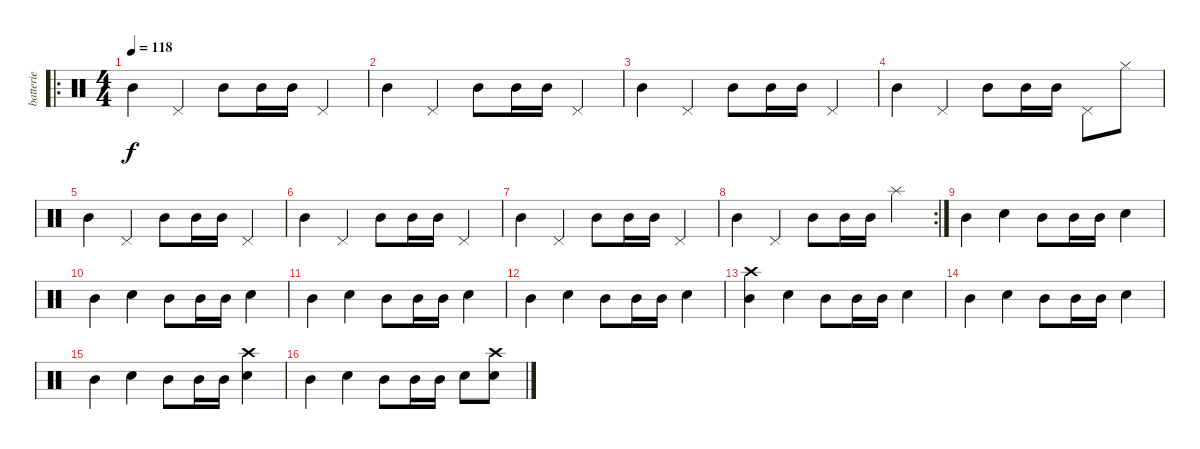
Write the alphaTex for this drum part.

\track ("batterie" "batterie") {instrument percussion}
\staff {score}
\articulation defaults
\ro
\ts (4 4)
\tempo 118
\clef neutral
\ks c "Mid Tom (hit)".4{dy f} "Pedal Hi-Hat (hit)".4 "Mid Tom (hit)".8 "Mid Tom (hit)".16 "Mid Tom (hit)".16 "Pedal Hi-Hat (hit)".4
|
"Mid Tom (hit)".4 "Pedal Hi-Hat (hit)".4 "Mid Tom (hit)".8 "Mid Tom (hit)".16 "Mid Tom (hit)".16 "Pedal Hi-Hat (hit)".4 |
"Mid Tom (hit)".4 "Pedal Hi-Hat (hit)".4 "Mid Tom (hit)".8 "Mid Tom (hit)".16 "Mid Tom (hit)".16 "Pedal Hi-Hat (hit)".4 |
"Mid Tom (hit)".4 "Pedal Hi-Hat (hit)".4 "Mid Tom (hit)".8 "Mid Tom (hit)".16 "Mid Tom (hit)".16 "Pedal Hi-Hat (hit)".8 "Hi-Hat (closed)".8 |
"Mid Tom (hit)".4 "Pedal Hi-Hat (hit)".4 "Mid Tom (hit)".8 "Mid Tom (hit)".16 "Mid Tom (hit)".16 "Pedal Hi-Hat (hit)".4 |
"Mid Tom (hit)".4 "Pedal Hi-Hat (hit)".4 "Mid Tom (hit)".8 "Mid Tom (hit)".16 "Mid Tom (hit)".16 "Pedal Hi-Hat (hit)".4 |
"Mid Tom (hit)".4 "Pedal Hi-Hat (hit)".4 "Mid Tom (hit)".8 "Mid Tom (hit)".16 "Mid Tom (hit)".16 "Pedal Hi-Hat (hit)".4 |
\rc 2 "Mid Tom (hit)".4 "Pedal Hi-Hat (hit)".4 "Mid Tom (hit)".8 "Mid Tom (hit)".16 "Mid Tom (hit)".16 "Splash (hit)".4
|
"Mid Tom (hit)".4 "Electric Snare (hit)".4 "Mid Tom (hit)".8 "Mid Tom (hit)".16 "Mid Tom (hit)".16 "Electric Snare (hit)".4 |
"Mid Tom (hit)".4 "Electric Snare (hit)".4 "Mid Tom (hit)".8 "Mid Tom (hit)".16 "Mid Tom (hit)".16 "Electric Snare (hit)".4 |
"Mid Tom (hit)".4 "Electric Snare (hit)".4 "Mid Tom (hit)".8 "Mid Tom (hit)".16 "Mid Tom (hit)".16 "Electric Snare (hit)".4 |
"Mid Tom (hit)".4 "Electric Snare (hit)".4 "Mid Tom (hit)".8 "Mid Tom (hit)".16 "Mid Tom (hit)".16 "Electric Snare (hit)".4 |
("Mid Tom (hit)" "Crash high (hit)").4 "Electric Snare (hit)".4 "Mid Tom (hit)".8 "Mid Tom (hit)".16 "Mid Tom (hit)".16 "Electric Snare (hit)".4 |
"Mid Tom (hit)".4 "Electric Snare (hit)".4 "Mid Tom (hit)".8 "Mid Tom (hit)".16 "Mid Tom (hit)".16 "Electric Snare (hit)".4 |
"Mid Tom (hit)".4 "Electric Snare (hit)".4 "Mid Tom (hit)".8 "Mid Tom (hit)".16 "Mid Tom (hit)".16 ("Electric Snare (hit)" "Crash high (hit)").4 |
"Mid Tom (hit)".4 "Electric Snare (hit)".4 "Mid Tom (hit)".8 "Mid Tom (hit)".16 "Mid Tom (hit)".16 "Electric Snare (hit)".8 ("Electric Snare (hit)" "Crash high (hit)").8
